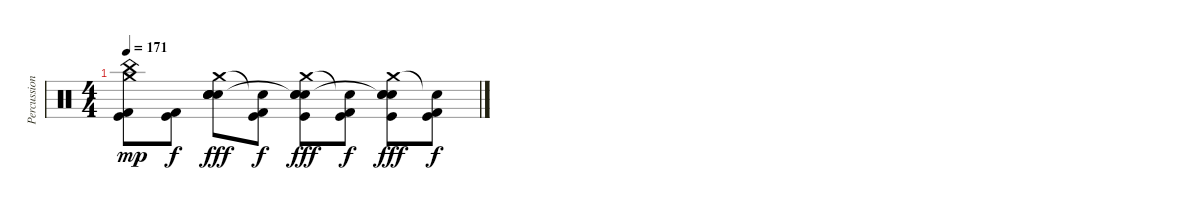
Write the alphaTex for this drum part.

\track ("Percussion" "Percussion") {instrument percussion}
\staff {score}
\articulation defaults
\ts (4 4)
\tempo 171
\clef neutral
\ks c
("China (hit)" "Crash medium (hit)" "Kick (hit)" "Kick (hit) 2").8{dy mp} ("Kick (hit)" "Kick (hit) 2").8{dy f} ("Crash medium (hit)" "Electric Snare (hit)" "Electric Snare (hit)" "Electric Snare (hit)" "Snare (hit)"{t}).8{dy fff} ("Snare (hit)"{t} "Kick (hit)" "Kick (hit) 2").8{dy f} ("Crash medium (hit)" "Electric Snare (hit)" "Electric Snare (hit)" "Electric Snare (hit)"{t} "Kick (hit)").8{dy fff} ("Snare (hit)"{t} "Kick (hit)" "Kick (hit) 2").8{dy f} ("Crash medium (hit)" "Electric Snare (hit)" "Electric Snare (hit)" "Electric Snare (hit)"{t} "Kick (hit)").8{dy fff} ("Snare (hit)"{t} "Kick (hit)" "Kick (hit) 2").8{dy f}
